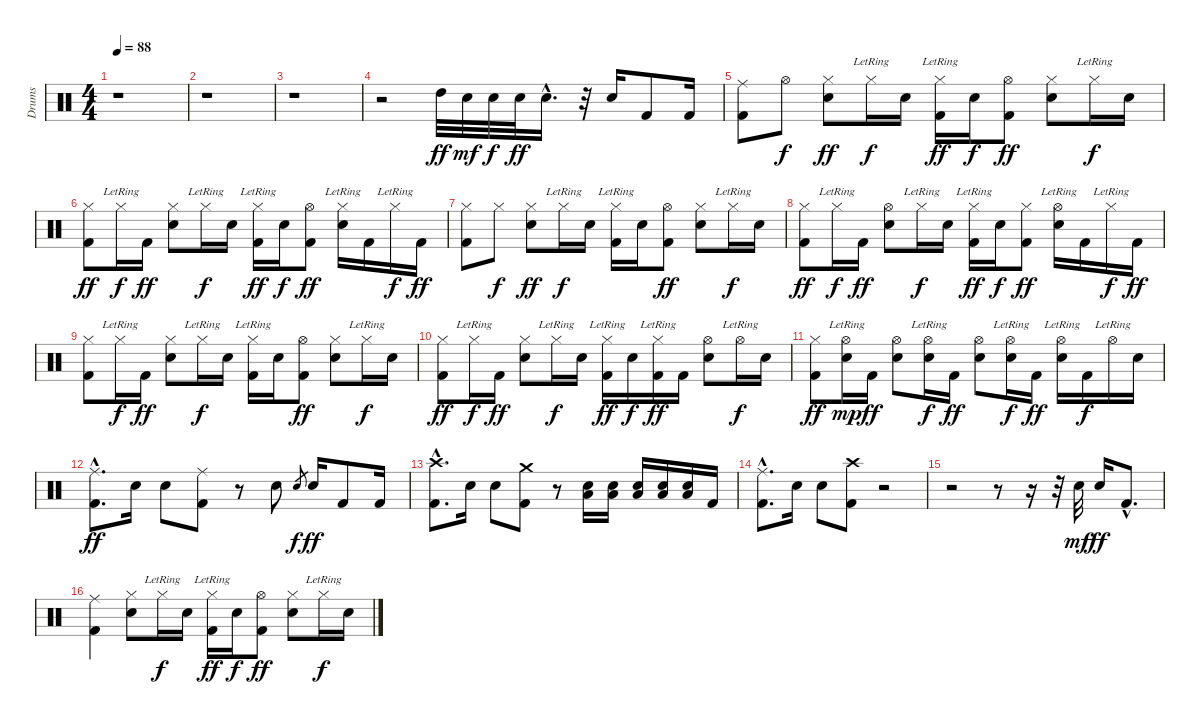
\track ("Drums" "Drums") {instrument percussion}
\staff {score}
\articulation defaults
\ts (4 4)
\tempo 88
\clef neutral
\ks c
r.1{dy ff} |
r.1 |
r.1 |
r.2 "High Tom (hit)".32 "Electric Snare (hit)".32{dy mf} "Electric Snare (hit)".32{dy f} "Electric Snare (hit)".32{dy ff} "Electric Snare (hit)"{hac}.16{d} r.32 "Electric Snare (hit)".16 "Kick (hit) 2".8 "Kick (hit) 2".16 |
("Ride (middle)" "Kick (hit) 2").8 "Hi-Hat (open)".8{dy f} ("Hi-Hat (closed)" "Electric Snare (hit)").8{dy ff} "Hi-Hat (closed)"{lr}.16{dy f} "Electric Snare (hit)".16 ("Hi-Hat (closed)"{lr} "Kick (hit) 2").16{dy ff} "Electric Snare (hit)".16{dy f} ("Hi-Hat (open)" "Kick (hit) 2").8{dy ff} ("Hi-Hat (closed)" "Electric Snare (hit)").8 "Hi-Hat (closed)"{lr}.16{dy f} "Electric Snare (hit)".16 |
("Hi-Hat (closed)" "Kick (hit) 2").8{dy ff} "Hi-Hat (closed)"{lr}.16{dy f} "Kick (hit) 2".16{dy ff} ("Hi-Hat (closed)" "Electric Snare (hit)").8 "Hi-Hat (closed)"{lr}.16{dy f} "Electric Snare (hit)".16 ("Hi-Hat (closed)"{lr} "Kick (hit) 2").16{dy ff} "Electric Snare (hit)".16{dy f} ("Hi-Hat (open)" "Kick (hit) 2").8{dy ff} ("Hi-Hat (closed)"{lr} "Electric Snare (hit)").16 "Kick (hit) 2".16 "Hi-Hat (closed)"{lr}.16{dy f} "Kick (hit) 2".16{dy ff} |
("Hi-Hat (closed)" "Kick (hit) 2").8 "Hi-Hat (closed)".8{dy f} ("Hi-Hat (closed)" "Electric Snare (hit)").8{dy ff} "Hi-Hat (closed)"{lr}.16{dy f} "Electric Snare (hit)".16 ("Hi-Hat (closed)"{lr} "Kick (hit) 2").16 "Electric Snare (hit)".16 ("Hi-Hat (open)" "Kick (hit) 2").8{dy ff} ("Hi-Hat (closed)" "Electric Snare (hit)").8 "Hi-Hat (closed)"{lr}.16{dy f} "Electric Snare (hit)".16 |
("Hi-Hat (closed)" "Kick (hit) 2").8{dy ff} "Hi-Hat (closed)"{lr}.16{dy f} "Kick (hit) 2".16{dy ff} ("Hi-Hat (open)" "Electric Snare (hit)").8 "Hi-Hat (closed)"{lr}.16{dy f} "Electric Snare (hit)".16 ("Hi-Hat (closed)"{lr} "Kick (hit) 2").16{dy ff} "Electric Snare (hit)".16{dy f} ("Hi-Hat (closed)" "Kick (hit) 2").8{dy ff} ("Hi-Hat (open)"{lr} "Electric Snare (hit)").16 "Kick (hit) 2".16 "Hi-Hat (closed)"{lr}.16{dy f} "Kick (hit) 2".16{dy ff} |
("Hi-Hat (closed)" "Kick (hit) 2").8 "Hi-Hat (closed)"{lr}.16{dy f} "Kick (hit) 2".16{dy ff} ("Hi-Hat (closed)" "Electric Snare (hit)").8 "Hi-Hat (closed)"{lr}.16{dy f} "Electric Snare (hit)".16 ("Hi-Hat (closed)"{lr} "Kick (hit) 2").16 "Electric Snare (hit)".16 ("Hi-Hat (open)" "Kick (hit) 2").8{dy ff} ("Hi-Hat (closed)" "Electric Snare (hit)").8 "Hi-Hat (closed)"{lr}.16{dy f} "Electric Snare (hit)".16 |
("Hi-Hat (closed)" "Kick (hit) 2").8{dy ff} "Hi-Hat (closed)"{lr}.16{dy f} "Kick (hit) 2".16{dy ff} ("Hi-Hat (closed)" "Electric Snare (hit)").8 "Hi-Hat (closed)"{lr}.16{dy f} "Electric Snare (hit)".16 ("Hi-Hat (closed)"{lr} "Kick (hit) 2").16{dy ff} "Electric Snare (hit)".16{dy f} ("Hi-Hat (closed)"{lr} "Kick (hit) 2").16{dy ff} "Kick (hit) 2".16 ("Hi-Hat (open)" "Electric Snare (hit)").8 "Hi-Hat (open)"{lr}.16{dy f} "Electric Snare (hit)".16 |
("Hi-Hat (closed)" "Kick (hit) 2").8{dy ff} ("Hi-Hat (open)"{lr} "Electric Snare (hit)").16{dy mp} "Kick (hit) 2".16{dy ff} ("Hi-Hat (open)" "Electric Snare (hit)").8 ("Hi-Hat (open)"{lr} "Electric Snare (hit)").16{dy f} "Kick (hit) 2".16{dy ff} ("Hi-Hat (open)" "Electric Snare (hit)").8 ("Hi-Hat (open)"{lr} "Electric Snare (hit)").16{dy f} "Kick (hit) 2".16{dy ff} ("Hi-Hat (open)"{lr} "Electric Snare (hit)").16 "Kick (hit) 2".16{dy f} "Hi-Hat (open)"{lr}.16 "Electric Snare (hit)".16 |
("Ride (middle)"{hac} "Kick (hit) 2"{hac}).8{d dy ff} "Electric Snare (hit)".16 "Electric Snare (hit)".8 ("Ride (middle)" "Kick (hit) 2").8 r.8 "Electric Snare (hit)".8 "Electric Snare (hit)".8{gr dy f} "Electric Snare (hit)".16{dy ff} "Kick (hit) 2".8 "Kick (hit) 2".16 |
("Crash high (hit)"{hac} "Kick (hit) 2"{hac}).8{d} "Electric Snare (hit)".16 "Electric Snare (hit)".8 ("Crash medium (hit)" "Kick (hit) 2").8 r.8 ("Electric Snare (hit)" "Low Tom (hit)").16 ("Electric Snare (hit)" "Low Tom (hit)").16 ("Electric Snare (hit)" "Low Tom (hit)").16 ("Electric Snare (hit)" "Low Tom (hit)").16 ("Electric Snare (hit)" "Low Tom (hit)").16 "Kick (hit) 2".16 |
("Ride (middle)"{hac} "Kick (hit) 2"{hac}).8{d} "Electric Snare (hit)".16 "Electric Snare (hit)".8 ("Crash high (hit)" "Kick (hit) 2").8 r.2 |
r.2 r.8 r.16 r.32 "Electric Snare (hit)".32{dy mf} "Electric Snare (hit)".16{dy ff} "Kick (hit) 2"{hac}.8{d} |
("Ride (middle)" "Kick (hit) 2").4 ("Hi-Hat (closed)" "Electric Snare (hit)").8 "Hi-Hat (closed)"{lr}.16{dy f} "Electric Snare (hit)".16 ("Hi-Hat (closed)"{lr} "Kick (hit) 2").16{dy ff} "Electric Snare (hit)".16{dy f} ("Hi-Hat (open)" "Kick (hit) 2").8{dy ff} ("Hi-Hat (closed)" "Electric Snare (hit)").8 "Hi-Hat (closed)"{lr}.16{dy f} "Electric Snare (hit)".16
